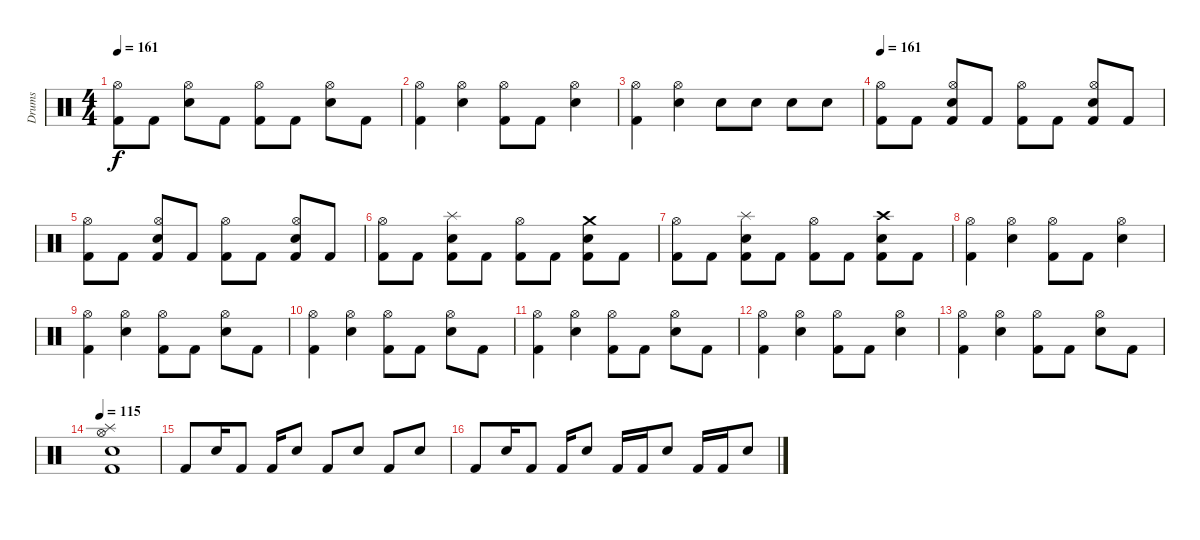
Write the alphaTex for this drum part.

\track ("Drums" "Drums") {instrument percussion}
\staff {score}
\articulation defaults
\ts (4 4)
\tempo 161
\clef neutral
\ks c
("Kick (hit) 2" "Hi-Hat (open)").8{dy f} "Kick (hit) 2".8 ("Electric Snare (hit)" "Hi-Hat (open)").8 "Kick (hit) 2".8 ("Kick (hit) 2" "Hi-Hat (open)").8 "Kick (hit) 2".8 ("Electric Snare (hit)" "Hi-Hat (open)").8 "Kick (hit) 2".8 |
("Kick (hit) 2" "Hi-Hat (open)").4 ("Electric Snare (hit)" "Hi-Hat (open)").4 ("Kick (hit) 2" "Hi-Hat (open)").8 "Kick (hit) 2".8 ("Electric Snare (hit)" "Hi-Hat (open)").4 |
("Kick (hit) 2" "Hi-Hat (open)").4 ("Electric Snare (hit)" "Hi-Hat (open)").4 "Electric Snare (hit)".8 "Electric Snare (hit)".8 "Electric Snare (hit)".8 "Electric Snare (hit)".8 |
\tempo 161
("Kick (hit) 2" "Hi-Hat (open)").8 "Kick (hit) 2".8 ("Kick (hit) 2" "Electric Snare (hit)" "Hi-Hat (open)").8 "Kick (hit) 2".8 ("Kick (hit) 2" "Hi-Hat (open)").8 "Kick (hit) 2".8 ("Kick (hit) 2" "Electric Snare (hit)" "Hi-Hat (open)").8 "Kick (hit) 2".8 |
("Kick (hit) 2" "Hi-Hat (open)").8 "Kick (hit) 2".8 ("Kick (hit) 2" "Electric Snare (hit)" "Hi-Hat (open)").8 "Kick (hit) 2".8 ("Kick (hit) 2" "Hi-Hat (open)").8 "Kick (hit) 2".8 ("Kick (hit) 2" "Electric Snare (hit)" "Hi-Hat (open)").8 "Kick (hit) 2".8 |
("Kick (hit) 2" "Hi-Hat (open)").8 "Kick (hit) 2".8 ("Kick (hit) 2" "Electric Snare (hit)" "Splash (hit)").8 "Kick (hit) 2".8 ("Kick (hit) 2" "Hi-Hat (open)").8 "Kick (hit) 2".8 ("Kick (hit) 2" "Electric Snare (hit)" "Crash medium (hit)").8 "Kick (hit) 2".8 |
("Kick (hit) 2" "Hi-Hat (open)").8 "Kick (hit) 2".8 ("Kick (hit) 2" "Electric Snare (hit)" "Splash (hit)").8 "Kick (hit) 2".8 ("Kick (hit) 2" "Hi-Hat (open)").8 "Kick (hit) 2".8 ("Kick (hit) 2" "Electric Snare (hit)" "Crash high (hit)").8 "Kick (hit) 2".8 |
("Kick (hit) 2" "Hi-Hat (open)").4 ("Electric Snare (hit)" "Hi-Hat (open)").4 ("Kick (hit) 2" "Hi-Hat (open)").8 "Kick (hit) 2".8 ("Electric Snare (hit)" "Hi-Hat (open)").4 |
("Kick (hit) 2" "Hi-Hat (open)").4 ("Electric Snare (hit)" "Hi-Hat (open)").4 ("Kick (hit) 2" "Hi-Hat (open)").8 "Kick (hit) 2".8 ("Electric Snare (hit)" "Hi-Hat (open)").8 "Kick (hit) 2".8 |
("Kick (hit) 2" "Hi-Hat (open)").4 ("Electric Snare (hit)" "Hi-Hat (open)").4 ("Kick (hit) 2" "Hi-Hat (open)").8 "Kick (hit) 2".8 ("Electric Snare (hit)" "Hi-Hat (open)").8 "Kick (hit) 2".8 |
("Kick (hit) 2" "Hi-Hat (open)").4 ("Electric Snare (hit)" "Hi-Hat (open)").4 ("Kick (hit) 2" "Hi-Hat (open)").8 "Kick (hit) 2".8 ("Electric Snare (hit)" "Hi-Hat (open)").8 "Kick (hit) 2".8 |
("Kick (hit) 2" "Hi-Hat (open)").4 ("Electric Snare (hit)" "Hi-Hat (open)").4 ("Kick (hit) 2" "Hi-Hat (open)").8 "Kick (hit) 2".8 ("Electric Snare (hit)" "Hi-Hat (open)").4 |
("Kick (hit) 2" "Hi-Hat (open)").4 ("Electric Snare (hit)" "Hi-Hat (open)").4 ("Kick (hit) 2" "Hi-Hat (open)").8 "Kick (hit) 2".8 ("Electric Snare (hit)" "Hi-Hat (open)").8 "Kick (hit) 2".8 |
\tempo 115
("Kick (hit) 2" "Electric Snare (hit)" "Hi-Hat (open)" "Splash (hit)").1 |
"Kick (hit) 2".8 "Electric Snare (hit)".16 "Kick (hit) 2".8 "Kick (hit) 2".16 "Electric Snare (hit)".8 "Kick (hit) 2".8 "Electric Snare (hit)".8 "Kick (hit) 2".8 "Electric Snare (hit)".8 |
"Kick (hit) 2".8 "Electric Snare (hit)".16 "Kick (hit) 2".8 "Kick (hit) 2".16 "Electric Snare (hit)".8 "Kick (hit) 2".16 "Kick (hit) 2".16 "Electric Snare (hit)".8 "Kick (hit) 2".16 "Kick (hit) 2".16 "Electric Snare (hit)".8
